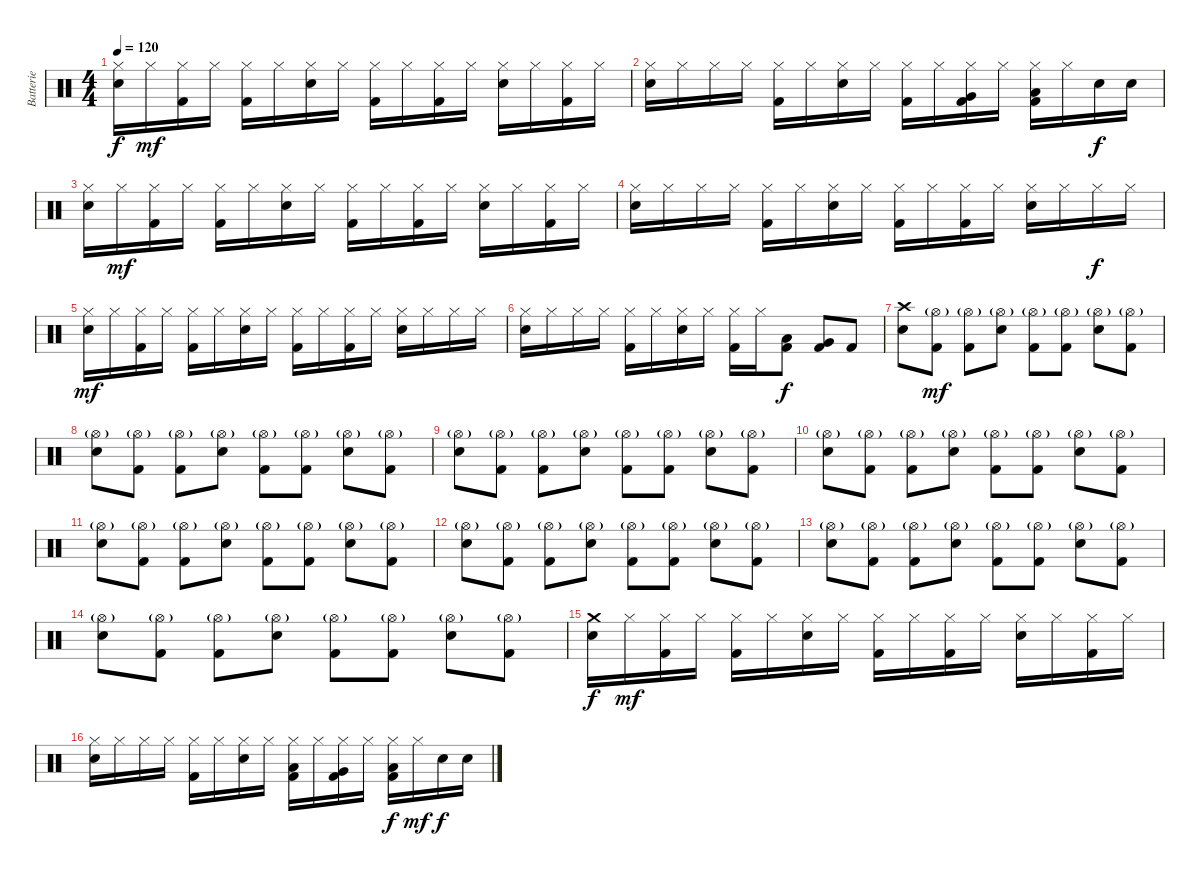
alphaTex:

\track ("Batterie" "Batterie") {instrument percussion}
\staff {score}
\articulation defaults
\ts (4 4)
\tempo 120
\clef neutral
\ks c
("Hi-Hat (closed)" "Snare (hit) 2").16{dy f} "Hi-Hat (closed)".16{dy mf} ("Hi-Hat (closed)" "Kick (hit) 2").16 "Hi-Hat (closed)".16 ("Hi-Hat (closed)" "Kick (hit) 2").16 "Hi-Hat (closed)".16 ("Hi-Hat (closed)" "Snare (hit) 2").16 "Hi-Hat (closed)".16 ("Hi-Hat (closed)" "Kick (hit) 2").16 "Hi-Hat (closed)".16 ("Hi-Hat (closed)" "Kick (hit) 2").16 "Hi-Hat (closed)".16 ("Hi-Hat (closed)" "Snare (hit) 2").16 "Hi-Hat (closed)".16 ("Hi-Hat (closed)" "Kick (hit) 2").16 "Hi-Hat (closed)".16 |
("Hi-Hat (closed)" "Snare (hit) 2").16 "Hi-Hat (closed)".16 "Hi-Hat (closed)".16 "Hi-Hat (closed)".16 ("Hi-Hat (closed)" "Kick (hit) 2").16 "Hi-Hat (closed)".16 ("Hi-Hat (closed)" "Snare (hit) 2").16 "Hi-Hat (closed)".16 ("Hi-Hat (closed)" "Kick (hit) 2").16 "Hi-Hat (closed)".16 ("Hi-Hat (closed)" "Very Low Tom (hit)" "Kick (hit) 2").16 "Hi-Hat (closed)".16 ("Hi-Hat (closed)" "Low Floor Tom (hit)" "Kick (hit) 2").16 "Hi-Hat (closed)".16 "Electric Snare (hit)".16{dy f} "Electric Snare (hit)".16 |
("Hi-Hat (closed)" "Snare (hit) 2").16 "Hi-Hat (closed)".16{dy mf} ("Hi-Hat (closed)" "Kick (hit) 2").16 "Hi-Hat (closed)".16 ("Hi-Hat (closed)" "Kick (hit) 2").16 "Hi-Hat (closed)".16 ("Hi-Hat (closed)" "Snare (hit) 2").16 "Hi-Hat (closed)".16 ("Hi-Hat (closed)" "Kick (hit) 2").16 "Hi-Hat (closed)".16 ("Hi-Hat (closed)" "Kick (hit) 2").16 "Hi-Hat (closed)".16 ("Hi-Hat (closed)" "Snare (hit) 2").16 "Hi-Hat (closed)".16 ("Hi-Hat (closed)" "Kick (hit) 2").16 "Hi-Hat (closed)".16 |
("Hi-Hat (closed)" "Snare (hit) 2").16 "Hi-Hat (closed)".16 "Hi-Hat (closed)".16 "Hi-Hat (closed)".16 ("Hi-Hat (closed)" "Kick (hit) 2").16 "Hi-Hat (closed)".16 ("Hi-Hat (closed)" "Snare (hit) 2").16 "Hi-Hat (closed)".16 ("Hi-Hat (closed)" "Kick (hit) 2").16 "Hi-Hat (closed)".16 ("Hi-Hat (closed)" "Kick (hit) 2").16 "Hi-Hat (closed)".16 ("Hi-Hat (closed)" "Snare (hit) 2").16 "Hi-Hat (closed)".16 "Hi-Hat (closed)".16{dy f} "Hi-Hat (closed)".16 |
("Hi-Hat (closed)" "Snare (hit) 2").16{dy mf} "Hi-Hat (closed)".16 ("Hi-Hat (closed)" "Kick (hit) 2").16 "Hi-Hat (closed)".16 ("Hi-Hat (closed)" "Kick (hit) 2").16 "Hi-Hat (closed)".16 ("Hi-Hat (closed)" "Snare (hit) 2").16 "Hi-Hat (closed)".16 ("Hi-Hat (closed)" "Kick (hit) 2").16 "Hi-Hat (closed)".16 ("Hi-Hat (closed)" "Kick (hit) 2").16 "Hi-Hat (closed)".16 ("Hi-Hat (closed)" "Snare (hit) 2").16 "Hi-Hat (closed)".16 "Hi-Hat (closed)".16 "Hi-Hat (closed)".16 |
("Hi-Hat (closed)" "Snare (hit) 2").16 "Hi-Hat (closed)".16 "Hi-Hat (closed)".16 "Hi-Hat (closed)".16 ("Hi-Hat (closed)" "Kick (hit) 2").16 "Hi-Hat (closed)".16 ("Hi-Hat (closed)" "Snare (hit) 2").16 "Hi-Hat (closed)".16 ("Hi-Hat (closed)" "Kick (hit) 2").16 "Hi-Hat (closed)".16 ("Low Tom (hit)" "Kick (hit) 2").8{dy f} ("Very Low Tom (hit)" "Kick (hit) 2").8 "Kick (hit) 2".8 |
("Crash high (hit)" "Snare (hit) 2").8 ("Hi-Hat (open)"{g} "Kick (hit) 2").8{dy mf} ("Hi-Hat (open)"{g} "Kick (hit) 2").8 ("Hi-Hat (open)"{g} "Snare (hit) 2").8 ("Hi-Hat (open)"{g} "Kick (hit) 2").8 ("Hi-Hat (open)"{g} "Kick (hit) 2").8 ("Hi-Hat (open)"{g} "Snare (hit) 2").8 ("Hi-Hat (open)"{g} "Kick (hit) 2").8 |
("Hi-Hat (open)"{g} "Snare (hit) 2").8 ("Hi-Hat (open)"{g} "Kick (hit) 2").8 ("Hi-Hat (open)"{g} "Kick (hit) 2").8 ("Hi-Hat (open)"{g} "Snare (hit) 2").8 ("Hi-Hat (open)"{g} "Kick (hit) 2").8 ("Hi-Hat (open)"{g} "Kick (hit) 2").8 ("Hi-Hat (open)"{g} "Snare (hit) 2").8 ("Hi-Hat (open)"{g} "Kick (hit) 2").8 |
("Hi-Hat (open)"{g} "Snare (hit) 2").8 ("Hi-Hat (open)"{g} "Kick (hit) 2").8 ("Hi-Hat (open)"{g} "Kick (hit) 2").8 ("Hi-Hat (open)"{g} "Snare (hit) 2").8 ("Hi-Hat (open)"{g} "Kick (hit) 2").8 ("Hi-Hat (open)"{g} "Kick (hit) 2").8 ("Hi-Hat (open)"{g} "Snare (hit) 2").8 ("Hi-Hat (open)"{g} "Kick (hit) 2").8 |
("Hi-Hat (open)"{g} "Snare (hit) 2").8 ("Hi-Hat (open)"{g} "Kick (hit) 2").8 ("Hi-Hat (open)"{g} "Kick (hit) 2").8 ("Hi-Hat (open)"{g} "Snare (hit) 2").8 ("Hi-Hat (open)"{g} "Kick (hit) 2").8 ("Hi-Hat (open)"{g} "Kick (hit) 2").8 ("Hi-Hat (open)"{g} "Snare (hit) 2").8 ("Hi-Hat (open)"{g} "Kick (hit) 2").8 |
("Hi-Hat (open)"{g} "Snare (hit) 2").8 ("Hi-Hat (open)"{g} "Kick (hit) 2").8 ("Hi-Hat (open)"{g} "Kick (hit) 2").8 ("Hi-Hat (open)"{g} "Snare (hit) 2").8 ("Hi-Hat (open)"{g} "Kick (hit) 2").8 ("Hi-Hat (open)"{g} "Kick (hit) 2").8 ("Hi-Hat (open)"{g} "Snare (hit) 2").8 ("Hi-Hat (open)"{g} "Kick (hit) 2").8 |
("Hi-Hat (open)"{g} "Snare (hit) 2").8 ("Hi-Hat (open)"{g} "Kick (hit) 2").8 ("Hi-Hat (open)"{g} "Kick (hit) 2").8 ("Hi-Hat (open)"{g} "Snare (hit) 2").8 ("Hi-Hat (open)"{g} "Kick (hit) 2").8 ("Hi-Hat (open)"{g} "Kick (hit) 2").8 ("Hi-Hat (open)"{g} "Snare (hit) 2").8 ("Hi-Hat (open)"{g} "Kick (hit) 2").8 |
("Hi-Hat (open)"{g} "Snare (hit) 2").8 ("Hi-Hat (open)"{g} "Kick (hit) 2").8 ("Hi-Hat (open)"{g} "Kick (hit) 2").8 ("Hi-Hat (open)"{g} "Snare (hit) 2").8 ("Hi-Hat (open)"{g} "Kick (hit) 2").8 ("Hi-Hat (open)"{g} "Kick (hit) 2").8 ("Hi-Hat (open)"{g} "Snare (hit) 2").8 ("Hi-Hat (open)"{g} "Kick (hit) 2").8 |
("Hi-Hat (open)"{g} "Snare (hit) 2").8 ("Hi-Hat (open)"{g} "Kick (hit) 2").8 ("Hi-Hat (open)"{g} "Kick (hit) 2").8 ("Hi-Hat (open)"{g} "Snare (hit) 2").8 ("Hi-Hat (open)"{g} "Kick (hit) 2").8 ("Hi-Hat (open)"{g} "Kick (hit) 2").8 ("Hi-Hat (open)"{g} "Snare (hit) 2").8 ("Hi-Hat (open)"{g} "Kick (hit) 2").8 |
("Crash medium (hit)" "Snare (hit) 2").16{dy f} "Hi-Hat (closed)".16{dy mf} ("Hi-Hat (closed)" "Kick (hit) 2").16 "Hi-Hat (closed)".16 ("Hi-Hat (closed)" "Kick (hit) 2").16 "Hi-Hat (closed)".16 ("Hi-Hat (closed)" "Snare (hit) 2").16 "Hi-Hat (closed)".16 ("Hi-Hat (closed)" "Kick (hit) 2").16 "Hi-Hat (closed)".16 ("Hi-Hat (closed)" "Kick (hit) 2").16 "Hi-Hat (closed)".16 ("Hi-Hat (closed)" "Snare (hit) 2").16 "Hi-Hat (closed)".16 ("Hi-Hat (closed)" "Kick (hit) 2").16 "Hi-Hat (closed)".16 |
("Hi-Hat (closed)" "Snare (hit) 2").16 "Hi-Hat (closed)".16 "Hi-Hat (closed)".16 "Hi-Hat (closed)".16 ("Hi-Hat (closed)" "Kick (hit) 2").16 "Hi-Hat (closed)".16 ("Hi-Hat (closed)" "Snare (hit) 2").16 "Hi-Hat (closed)".16 ("Hi-Hat (closed)" "Low Tom (hit)" "Kick (hit) 2").16 "Hi-Hat (closed)".16 ("Hi-Hat (closed)" "Very Low Tom (hit)" "Kick (hit) 2").16 "Hi-Hat (closed)".16 ("Hi-Hat (closed)" "Low Floor Tom (hit)" "Kick (hit) 2").16{dy f} "Hi-Hat (closed)".16{dy mf} "Electric Snare (hit)".16{dy f} "Electric Snare (hit)".16
